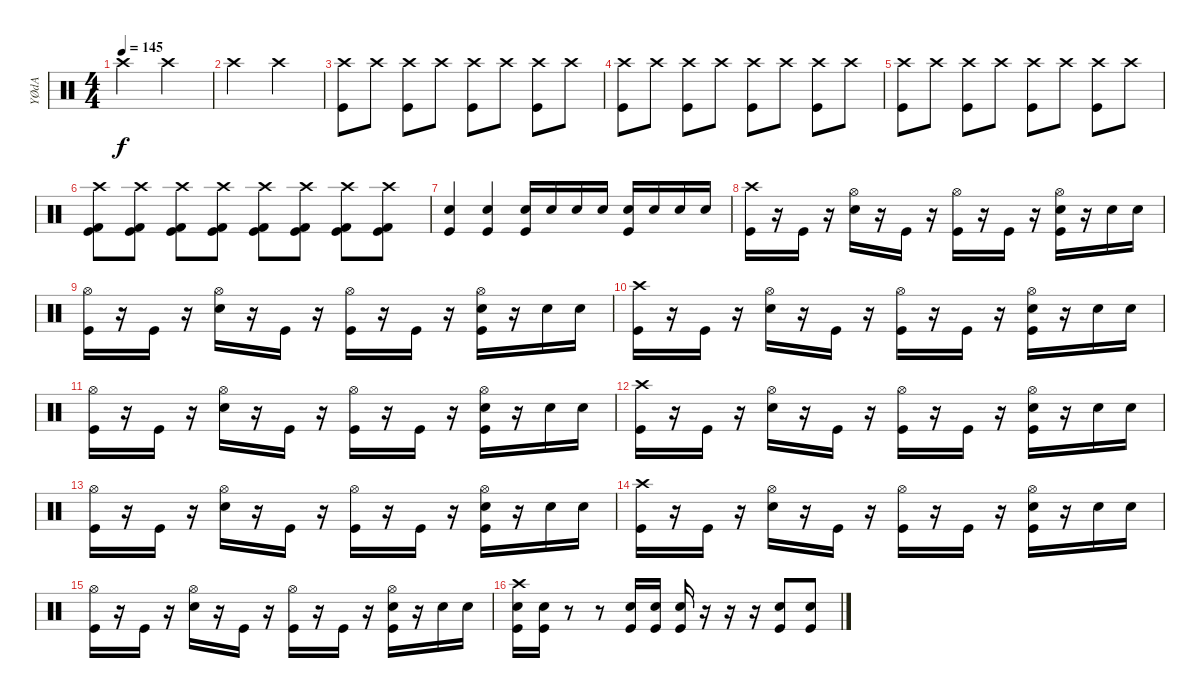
\track ("YØdA" "YØdA") {instrument percussion}
\staff {score}
\articulation defaults
\ts (4 4)
\tempo 145
\clef neutral
\ks c "Crash high (hit)".2{dy f} "Crash high (hit)".2
|
"Crash high (hit)".2 "Crash high (hit)".2 |
("Crash high (hit)" "Kick (hit)").8 "Crash high (hit)".8 ("Crash high (hit)" "Kick (hit)").8 "Crash high (hit)".8 ("Crash high (hit)" "Kick (hit)").8 "Crash high (hit)".8 ("Crash high (hit)" "Kick (hit)").8 "Crash high (hit)".8 |
("Crash high (hit)" "Kick (hit)").8 "Crash high (hit)".8 ("Crash high (hit)" "Kick (hit)").8 "Crash high (hit)".8 ("Crash high (hit)" "Kick (hit)").8 "Crash high (hit)".8 ("Crash high (hit)" "Kick (hit)").8 "Crash high (hit)".8 |
("Crash high (hit)" "Kick (hit)").8 "Crash high (hit)".8 ("Crash high (hit)" "Kick (hit)").8 "Crash high (hit)".8 ("Crash high (hit)" "Kick (hit)").8 "Crash high (hit)".8 ("Crash high (hit)" "Kick (hit)").8 "Crash high (hit)".8 |
("Crash high (hit)" "Kick (hit) 2" "Kick (hit)").8 ("Crash high (hit)" "Kick (hit) 2" "Kick (hit)").8 ("Crash high (hit)" "Kick (hit) 2" "Kick (hit)").8 ("Crash high (hit)" "Kick (hit) 2" "Kick (hit)").8 ("Crash high (hit)" "Kick (hit) 2" "Kick (hit)").8 ("Crash high (hit)" "Kick (hit) 2" "Kick (hit)").8 ("Crash high (hit)" "Kick (hit) 2" "Kick (hit)").8 ("Crash high (hit)" "Kick (hit) 2" "Kick (hit)").8 |
("Electric Snare (hit)" "Kick (hit)").4 ("Electric Snare (hit)" "Kick (hit)").4 ("Electric Snare (hit)" "Kick (hit)").16 "Electric Snare (hit)".16 "Electric Snare (hit)".16 "Electric Snare (hit)".16 ("Electric Snare (hit)" "Kick (hit)").16 "Electric Snare (hit)".16 "Electric Snare (hit)".16 "Electric Snare (hit)".16 |
("Crash high (hit)" "Kick (hit)").16 r.16 "Kick (hit)".16 r.16 ("Hi-Hat (open)" "Electric Snare (hit)").16 r.16 "Kick (hit)".16 r.16 ("Hi-Hat (open)" "Kick (hit)").16 r.16 "Kick (hit)".16 r.16 ("Hi-Hat (open)" "Electric Snare (hit)" "Kick (hit)").16 r.16 "Electric Snare (hit)".16 "Electric Snare (hit)".16 |
("Hi-Hat (open)" "Kick (hit)").16 r.16 "Kick (hit)".16 r.16 ("Hi-Hat (open)" "Electric Snare (hit)").16 r.16 "Kick (hit)".16 r.16 ("Hi-Hat (open)" "Kick (hit)").16 r.16 "Kick (hit)".16 r.16 ("Hi-Hat (open)" "Electric Snare (hit)" "Kick (hit)").16 r.16 "Electric Snare (hit)".16 "Electric Snare (hit)".16 |
("Crash high (hit)" "Kick (hit)").16 r.16 "Kick (hit)".16 r.16 ("Hi-Hat (open)" "Electric Snare (hit)").16 r.16 "Kick (hit)".16 r.16 ("Hi-Hat (open)" "Kick (hit)").16 r.16 "Kick (hit)".16 r.16 ("Hi-Hat (open)" "Electric Snare (hit)" "Kick (hit)").16 r.16 "Electric Snare (hit)".16 "Electric Snare (hit)".16 |
("Hi-Hat (open)" "Kick (hit)").16 r.16 "Kick (hit)".16 r.16 ("Hi-Hat (open)" "Electric Snare (hit)").16 r.16 "Kick (hit)".16 r.16 ("Hi-Hat (open)" "Kick (hit)").16 r.16 "Kick (hit)".16 r.16 ("Hi-Hat (open)" "Electric Snare (hit)" "Kick (hit)").16 r.16 "Electric Snare (hit)".16 "Electric Snare (hit)".16 |
("Crash high (hit)" "Kick (hit)").16 r.16 "Kick (hit)".16 r.16 ("Hi-Hat (open)" "Electric Snare (hit)").16 r.16 "Kick (hit)".16 r.16 ("Hi-Hat (open)" "Kick (hit)").16 r.16 "Kick (hit)".16 r.16 ("Hi-Hat (open)" "Electric Snare (hit)" "Kick (hit)").16 r.16 "Electric Snare (hit)".16 "Electric Snare (hit)".16 |
("Hi-Hat (open)" "Kick (hit)").16 r.16 "Kick (hit)".16 r.16 ("Hi-Hat (open)" "Electric Snare (hit)").16 r.16 "Kick (hit)".16 r.16 ("Hi-Hat (open)" "Kick (hit)").16 r.16 "Kick (hit)".16 r.16 ("Hi-Hat (open)" "Electric Snare (hit)" "Kick (hit)").16 r.16 "Electric Snare (hit)".16 "Electric Snare (hit)".16 |
("Crash high (hit)" "Kick (hit)").16 r.16 "Kick (hit)".16 r.16 ("Hi-Hat (open)" "Electric Snare (hit)").16 r.16 "Kick (hit)".16 r.16 ("Hi-Hat (open)" "Kick (hit)").16 r.16 "Kick (hit)".16 r.16 ("Hi-Hat (open)" "Electric Snare (hit)" "Kick (hit)").16 r.16 "Electric Snare (hit)".16 "Electric Snare (hit)".16 |
("Hi-Hat (open)" "Kick (hit)").16 r.16 "Kick (hit)".16 r.16 ("Hi-Hat (open)" "Electric Snare (hit)").16 r.16 "Kick (hit)".16 r.16 ("Hi-Hat (open)" "Kick (hit)").16 r.16 "Kick (hit)".16 r.16 ("Hi-Hat (open)" "Electric Snare (hit)" "Kick (hit)").16 r.16 "Electric Snare (hit)".16 "Electric Snare (hit)".16 |
("Crash high (hit)" "Electric Snare (hit)" "Kick (hit)").16 ("Electric Snare (hit)" "Kick (hit)").16 r.8 r.8 ("Electric Snare (hit)" "Kick (hit)").16 ("Electric Snare (hit)" "Kick (hit)").16 ("Electric Snare (hit)" "Kick (hit)").16 r.16 r.16 r.16 ("Electric Snare (hit)" "Kick (hit)").8 ("Electric Snare (hit)" "Kick (hit)").8
